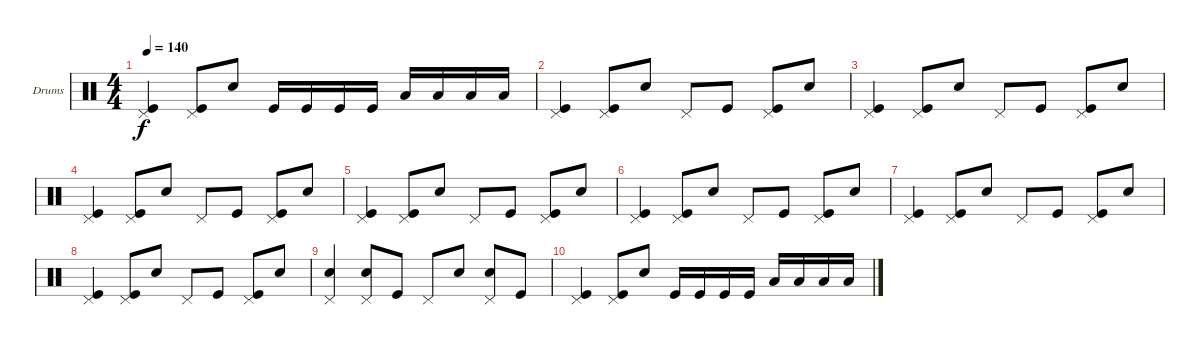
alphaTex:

\defaultSystemsLayout 4
\bracketExtendMode groupsimilarinstruments
\firstSystemTrackNameOrientation horizontal
\otherSystemsTrackNameOrientation horizontal
\track ("Drumkit" "Drums") {instrument percussion}
\staff {score}
\articulation defaults
\ts (4 4)
\tempo 140
\clef neutral
\ks c
("Kick (hit)" "Pedal Hi-Hat (hit)").4{dy f} ("Kick (hit)" "Pedal Hi-Hat (hit)").8 "Snare (hit) 2".8 "Kick (hit)".16 "Kick (hit)".16 "Kick (hit)".16 "Kick (hit)".16 "Low Tom (hit)".16 "Low Tom (hit)".16 "Low Tom (hit)".16 "Low Tom (hit)".16 |
("Kick (hit)" "Pedal Hi-Hat (hit)").4 ("Kick (hit)" "Pedal Hi-Hat (hit)").8 "Snare (hit) 2".8 "Pedal Hi-Hat (hit)".8 "Kick (hit)".8 ("Kick (hit)" "Pedal Hi-Hat (hit)").8 "Snare (hit) 2".8 |
("Kick (hit)" "Pedal Hi-Hat (hit)").4 ("Kick (hit)" "Pedal Hi-Hat (hit)").8 "Snare (hit) 2".8 "Pedal Hi-Hat (hit)".8 "Kick (hit)".8 ("Kick (hit)" "Pedal Hi-Hat (hit)").8 "Snare (hit) 2".8 |
("Kick (hit)" "Pedal Hi-Hat (hit)").4 ("Kick (hit)" "Pedal Hi-Hat (hit)").8 "Snare (hit) 2".8 "Pedal Hi-Hat (hit)".8 "Kick (hit)".8 ("Kick (hit)" "Pedal Hi-Hat (hit)").8 "Snare (hit) 2".8 |
("Kick (hit)" "Pedal Hi-Hat (hit)").4 ("Kick (hit)" "Pedal Hi-Hat (hit)").8 "Snare (hit) 2".8 "Pedal Hi-Hat (hit)".8 "Kick (hit)".8 ("Kick (hit)" "Pedal Hi-Hat (hit)").8 "Snare (hit) 2".8 |
("Kick (hit)" "Pedal Hi-Hat (hit)").4 ("Kick (hit)" "Pedal Hi-Hat (hit)").8 "Snare (hit) 2".8 "Pedal Hi-Hat (hit)".8 "Kick (hit)".8 ("Kick (hit)" "Pedal Hi-Hat (hit)").8 "Snare (hit) 2".8 |
("Kick (hit)" "Pedal Hi-Hat (hit)").4 ("Kick (hit)" "Pedal Hi-Hat (hit)").8 "Snare (hit) 2".8 "Pedal Hi-Hat (hit)".8 "Kick (hit)".8 ("Kick (hit)" "Pedal Hi-Hat (hit)").8 "Snare (hit) 2".8 |
("Kick (hit)" "Pedal Hi-Hat (hit)").4 ("Kick (hit)" "Pedal Hi-Hat (hit)").8 "Snare (hit) 2".8 "Pedal Hi-Hat (hit)".8 "Kick (hit)".8 ("Kick (hit)" "Pedal Hi-Hat (hit)").8 "Snare (hit) 2".8 |
("Pedal Hi-Hat (hit)" "Snare (hit) 2").4 ("Pedal Hi-Hat (hit)" "Snare (hit) 2").8 "Kick (hit)".8 "Pedal Hi-Hat (hit)".8 "Snare (hit) 2".8 ("Pedal Hi-Hat (hit)" "Snare (hit) 2").8 "Kick (hit)".8 |
("Kick (hit)" "Pedal Hi-Hat (hit)").4 ("Kick (hit)" "Pedal Hi-Hat (hit)").8 "Snare (hit) 2".8 "Kick (hit)".16 "Kick (hit)".16 "Kick (hit)".16 "Kick (hit)".16 "Low Tom (hit)".16 "Low Tom (hit)".16 "Low Tom (hit)".16 "Low Tom (hit)".16
